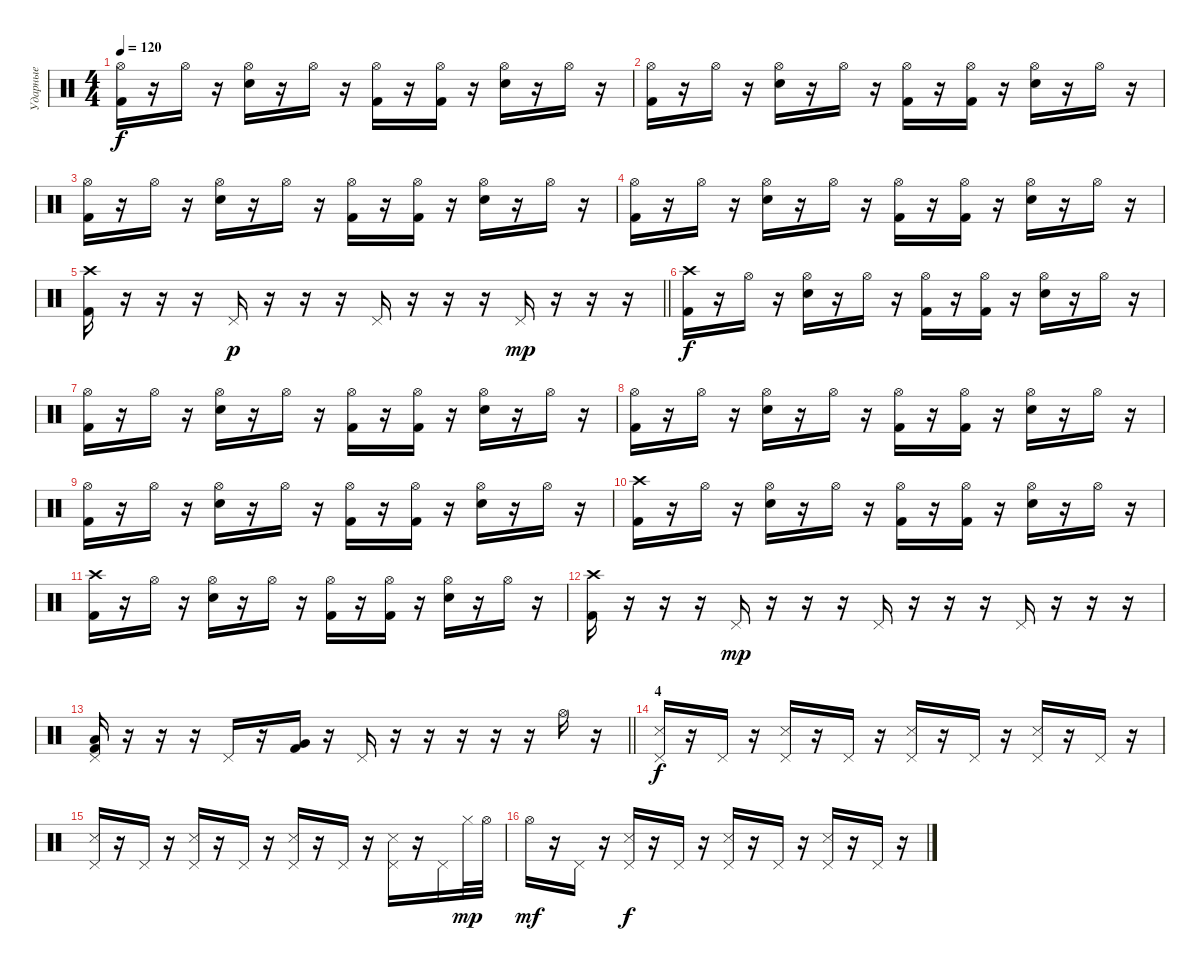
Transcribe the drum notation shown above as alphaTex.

\track ("Ударные" "Ударные") {instrument percussion}
\staff {score}
\articulation defaults
\ts (4 4)
\tempo 120
\clef neutral
\ks c
("Hi-Hat (open)" "Kick (hit) 2").16{dy f} r.16 "Hi-Hat (open)".16 r.16 ("Hi-Hat (open)" "Electric Snare (hit)").16 r.16 "Hi-Hat (open)".16 r.16 ("Hi-Hat (open)" "Kick (hit) 2").16 r.16 ("Hi-Hat (open)" "Kick (hit) 2").16 r.16 ("Hi-Hat (open)" "Electric Snare (hit)").16 r.16 "Hi-Hat (open)".16 r.16 |
("Hi-Hat (open)" "Kick (hit) 2").16 r.16 "Hi-Hat (open)".16 r.16 ("Hi-Hat (open)" "Electric Snare (hit)").16 r.16 "Hi-Hat (open)".16 r.16 ("Hi-Hat (open)" "Kick (hit) 2").16 r.16 ("Hi-Hat (open)" "Kick (hit) 2").16 r.16 ("Hi-Hat (open)" "Electric Snare (hit)").16 r.16 "Hi-Hat (open)".16 r.16 |
("Hi-Hat (open)" "Kick (hit) 2").16 r.16 "Hi-Hat (open)".16 r.16 ("Hi-Hat (open)" "Electric Snare (hit)").16 r.16 "Hi-Hat (open)".16 r.16 ("Hi-Hat (open)" "Kick (hit) 2").16 r.16 ("Hi-Hat (open)" "Kick (hit) 2").16 r.16 ("Hi-Hat (open)" "Electric Snare (hit)").16 r.16 "Hi-Hat (open)".16 r.16 |
("Hi-Hat (open)" "Kick (hit) 2").16 r.16 "Hi-Hat (open)".16 r.16 ("Hi-Hat (open)" "Electric Snare (hit)").16 r.16 "Hi-Hat (open)".16 r.16 ("Hi-Hat (open)" "Kick (hit) 2").16 r.16 ("Hi-Hat (open)" "Kick (hit) 2").16 r.16 ("Hi-Hat (open)" "Electric Snare (hit)").16 r.16 "Hi-Hat (open)".16 r.16 |
\barLineRight lightlight
("Crash high (hit)" "Kick (hit) 2").16 r.16 r.16 r.16 "Pedal Hi-Hat (hit)".16{dy p} r.16 r.16 r.16 "Pedal Hi-Hat (hit)".16 r.16 r.16 r.16 "Pedal Hi-Hat (hit)".16{dy mp} r.16 r.16 r.16 |
("Crash high (hit)" "Kick (hit) 2").16{dy f} r.16 "Hi-Hat (open)".16 r.16 ("Hi-Hat (open)" "Electric Snare (hit)").16 r.16 "Hi-Hat (open)".16 r.16 ("Hi-Hat (open)" "Kick (hit) 2").16 r.16 ("Hi-Hat (open)" "Kick (hit) 2").16 r.16 ("Hi-Hat (open)" "Electric Snare (hit)").16 r.16 "Hi-Hat (open)".16 r.16 |
("Hi-Hat (open)" "Kick (hit) 2").16 r.16 "Hi-Hat (open)".16 r.16 ("Hi-Hat (open)" "Electric Snare (hit)").16 r.16 "Hi-Hat (open)".16 r.16 ("Hi-Hat (open)" "Kick (hit) 2").16 r.16 ("Hi-Hat (open)" "Kick (hit) 2").16 r.16 ("Hi-Hat (open)" "Electric Snare (hit)").16 r.16 "Hi-Hat (open)".16 r.16 |
("Hi-Hat (open)" "Kick (hit) 2").16 r.16 "Hi-Hat (open)".16 r.16 ("Hi-Hat (open)" "Electric Snare (hit)").16 r.16 "Hi-Hat (open)".16 r.16 ("Hi-Hat (open)" "Kick (hit) 2").16 r.16 ("Hi-Hat (open)" "Kick (hit) 2").16 r.16 ("Hi-Hat (open)" "Electric Snare (hit)").16 r.16 "Hi-Hat (open)".16 r.16 |
("Hi-Hat (open)" "Kick (hit) 2").16 r.16 "Hi-Hat (open)".16 r.16 ("Hi-Hat (open)" "Electric Snare (hit)").16 r.16 "Hi-Hat (open)".16 r.16 ("Hi-Hat (open)" "Kick (hit) 2").16 r.16 ("Hi-Hat (open)" "Kick (hit) 2").16 r.16 ("Hi-Hat (open)" "Electric Snare (hit)").16 r.16 "Hi-Hat (open)".16 r.16 |
("Crash high (hit)" "Kick (hit) 2").16 r.16 "Hi-Hat (open)".16 r.16 ("Hi-Hat (open)" "Electric Snare (hit)").16 r.16 "Hi-Hat (open)".16 r.16 ("Hi-Hat (open)" "Kick (hit) 2").16 r.16 ("Hi-Hat (open)" "Kick (hit) 2").16 r.16 ("Hi-Hat (open)" "Electric Snare (hit)").16 r.16 "Hi-Hat (open)".16 r.16 |
("Crash high (hit)" "Kick (hit) 2").16 r.16 "Hi-Hat (open)".16 r.16 ("Hi-Hat (open)" "Electric Snare (hit)").16 r.16 "Hi-Hat (open)".16 r.16 ("Hi-Hat (open)" "Kick (hit) 2").16 r.16 ("Hi-Hat (open)" "Kick (hit) 2").16 r.16 ("Hi-Hat (open)" "Electric Snare (hit)").16 r.16 "Hi-Hat (open)".16 r.16 |
("Crash high (hit)" "Kick (hit) 2").16 r.16 r.16 r.16 "Pedal Hi-Hat (hit)".16{dy mp} r.16 r.16 r.16 "Pedal Hi-Hat (hit)".16 r.16 r.16 r.16 "Pedal Hi-Hat (hit)".16 r.16 r.16 r.16 |
\barLineRight lightlight
("Pedal Hi-Hat (hit)" "Low Floor Tom (hit)" "Kick (hit) 2").16 r.16 r.16 r.16 "Pedal Hi-Hat (hit)".16 r.16 ("Very Low Tom (hit)" "Kick (hit) 2").16 r.16 "Pedal Hi-Hat (hit)".16 r.16 r.16 r.16 r.16 r.16 "Hi-Hat (open)".16 r.16 |
\section ("" "4")
("Pedal Hi-Hat (hit)" "Snare (side stick) 3").16{dy f} r.16 "Pedal Hi-Hat (hit)".16 r.16 ("Pedal Hi-Hat (hit)" "Snare (side stick) 3").16 r.16 "Pedal Hi-Hat (hit)".16 r.16 ("Pedal Hi-Hat (hit)" "Snare (side stick) 3").16 r.16 "Pedal Hi-Hat (hit)".16 r.16 ("Pedal Hi-Hat (hit)" "Snare (side stick) 3").16 r.16 "Pedal Hi-Hat (hit)".16 r.16 |
("Pedal Hi-Hat (hit)" "Snare (side stick) 3").16 r.16 "Pedal Hi-Hat (hit)".16 r.16 ("Pedal Hi-Hat (hit)" "Snare (side stick) 3").16 r.16 "Pedal Hi-Hat (hit)".16 r.16 ("Pedal Hi-Hat (hit)" "Snare (side stick) 3").16 r.16 "Pedal Hi-Hat (hit)".16 r.16 ("Pedal Hi-Hat (hit)" "Snare (side stick) 3").16 r.16 "Pedal Hi-Hat (hit)".16 "Hi-Hat (closed)".32{dy mp} "Hi-Hat (open)".32 |
"Hi-Hat (open)".16{dy mf} r.16 "Pedal Hi-Hat (hit)".16 r.16 ("Pedal Hi-Hat (hit)" "Snare (side stick) 3").16{dy f} r.16 "Pedal Hi-Hat (hit)".16 r.16 ("Pedal Hi-Hat (hit)" "Snare (side stick) 3").16 r.16 "Pedal Hi-Hat (hit)".16 r.16 ("Pedal Hi-Hat (hit)" "Snare (side stick) 3").16 r.16 "Pedal Hi-Hat (hit)".16 r.16
